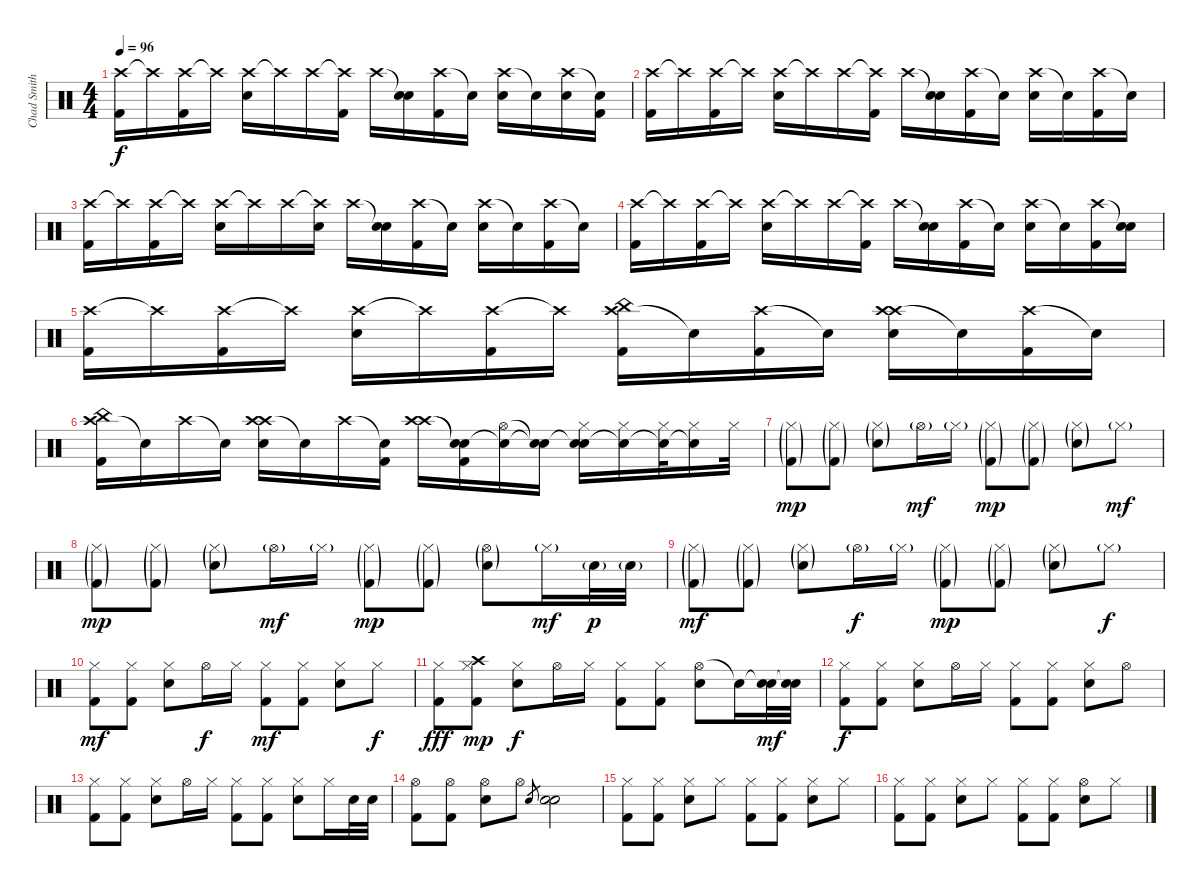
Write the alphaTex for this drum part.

\track ("Chad Smith" "Chad Smith") {mute instrument percussion}
\staff {score}
\articulation defaults
\ts (4 4)
\tempo 96
\clef neutral
\ks c
("Crash high (hit)" "Kick (hit) 2").16{dy f} "Crash high (hit)"{t}.16 ("Crash high (hit)" "Kick (hit) 2").16 "Crash high (hit)"{t}.16 ("Crash high (hit)" "Snare (hit) 2").16 "Crash high (hit)"{t}.16 "Crash high (hit)".16 ("Crash high (hit)"{t} "Kick (hit) 2").16 "Crash high (hit)".16 ("Snare (hit)"{t} "Snare (hit) 2").16 ("Crash high (hit)" "Kick (hit) 2").16 "Snare (hit)"{t}.16 ("Crash high (hit)" "Snare (hit) 2").16 "Snare (hit)"{t}.16 ("Crash high (hit)" "Snare (hit) 2").16 ("Snare (hit)"{t} "Kick (hit) 2").16 |
("Crash high (hit)" "Kick (hit) 2").16 "Crash high (hit)"{t}.16 ("Crash high (hit)" "Kick (hit) 2").16 "Crash high (hit)"{t}.16 ("Crash high (hit)" "Snare (hit) 2").16 "Crash high (hit)"{t}.16 "Crash high (hit)".16 ("Crash high (hit)"{t} "Kick (hit) 2").16 "Crash high (hit)".16 ("Snare (hit)"{t} "Snare (hit) 2").16 ("Crash high (hit)" "Kick (hit) 2").16 "Snare (hit)"{t}.16 ("Crash high (hit)" "Snare (hit) 2").16 "Snare (hit)"{t}.16 ("Crash high (hit)" "Kick (hit) 2").16 "Snare (hit)"{t}.16 |
("Crash high (hit)" "Kick (hit) 2").16 "Crash high (hit)"{t}.16 ("Crash high (hit)" "Kick (hit) 2").16 "Crash high (hit)"{t}.16 ("Crash high (hit)" "Snare (hit) 2").16 "Crash high (hit)"{t}.16 "Crash high (hit)".16 ("Crash high (hit)"{t} "Snare (hit) 2").16 "Crash high (hit)".16 ("Snare (hit)"{t} "Snare (hit) 2").16 ("Crash high (hit)" "Kick (hit) 2").16 "Snare (hit)"{t}.16 ("Crash high (hit)" "Snare (hit) 2").16 "Snare (hit)"{t}.16 ("Crash high (hit)" "Kick (hit) 2").16 "Snare (hit)"{t}.16 |
("Crash high (hit)" "Kick (hit) 2").16 "Crash high (hit)"{t}.16 ("Crash high (hit)" "Kick (hit) 2").16 "Crash high (hit)"{t}.16 ("Crash high (hit)" "Snare (hit) 2").16 "Crash high (hit)"{t}.16 "Crash high (hit)".16 ("Crash high (hit)"{t} "Kick (hit) 2").16 "Crash high (hit)".16 ("Snare (hit)"{t} "Snare (hit) 2").16 ("Crash high (hit)" "Kick (hit) 2").16 "Snare (hit)"{t}.16 ("Crash high (hit)" "Snare (hit) 2").16 "Snare (hit)"{t}.16 ("Crash high (hit)" "Kick (hit) 2").16 ("Snare (hit)"{t} "Snare (hit) 2").16 |
("Crash high (hit)" "Kick (hit) 2").16 "Crash high (hit)"{t}.16 ("Crash high (hit)" "Kick (hit) 2").16 "Crash high (hit)"{t}.16 ("Crash high (hit)" "Snare (hit) 2").16 "Crash high (hit)"{t}.16 ("Crash high (hit)" "Kick (hit) 2").16 "Crash high (hit)"{t}.16 ("Crash high (hit)" "China (hit)" "Kick (hit) 2").16 "Snare (hit)"{t}.16 ("Crash high (hit)" "Kick (hit) 2").16 "Snare (hit)"{t}.16 ("Crash high (hit)" "Crash high (hit)" "Snare (hit) 2").16 "Snare (hit)"{t}.16 ("Crash high (hit)" "Kick (hit) 2").16 "Snare (hit)"{t}.16 |
("Crash high (hit)" "China (hit)" "Kick (hit) 2").16 "Snare (hit)"{t}.16 "Crash high (hit)".16 "Snare (hit)"{t}.16 ("Crash high (hit)" "Crash high (hit)" "Snare (hit) 2").16 "Snare (hit)"{t}.16 "Crash high (hit)".16 ("Snare (hit)"{t} "Kick (hit) 2").16 ("Crash high (hit)" "Crash high (hit)").16 ("Snare (hit)"{t} "Snare (hit)"{t} "Kick (hit) 2").16 ("Hi-Hat (open)" "Snare (hit)"{t}).16 ("Snare (hit)"{t} "Snare (hit)"{t}).16 ("Hi-Hat (closed)" "Snare (hit)"{t} "Snare (hit) 2").16 ("Hi-Hat (closed)" "Snare (hit)"{t}).16 ("Hi-Hat (closed)" "Snare (hit)"{t}).32 ("Hi-Hat (closed)" "Snare (hit)"{t}).16 "Hi-Hat (closed)".32 |
("Hi-Hat (closed)"{g} "Kick (hit) 2"{g}).8{dy mp} ("Hi-Hat (closed)"{g} "Kick (hit) 2"{g}).8 ("Hi-Hat (closed)"{g} "Snare (hit) 2"{g}).8 "Hi-Hat (open)"{g}.16{dy mf} "Hi-Hat (closed)"{g}.16 ("Hi-Hat (closed)"{g} "Kick (hit) 2"{g}).8{dy mp} ("Hi-Hat (closed)"{g} "Kick (hit) 2"{g}).8 ("Hi-Hat (closed)"{g} "Snare (hit) 2"{g}).8 "Hi-Hat (closed)"{g}.8{dy mf} |
("Hi-Hat (closed)"{g} "Kick (hit) 2"{g}).8{dy mp} ("Hi-Hat (closed)"{g} "Kick (hit) 2"{g}).8 ("Hi-Hat (closed)"{g} "Snare (hit) 2"{g}).8 "Hi-Hat (open)"{g}.16{dy mf} "Hi-Hat (closed)"{g}.16 ("Hi-Hat (closed)"{g} "Kick (hit) 2"{g}).8{dy mp} ("Hi-Hat (closed)"{g} "Kick (hit) 2"{g}).8 ("Hi-Hat (open)"{g} "Snare (hit) 2"{g}).8 "Hi-Hat (closed)"{g}.16{dy mf} "Snare (hit) 2"{g}.32{dy p} "Snare (hit) 2"{g}.32 |
("Hi-Hat (closed)"{g} "Kick (hit) 2"{g}).8{dy mf} ("Hi-Hat (closed)"{g} "Kick (hit) 2"{g}).8 ("Hi-Hat (closed)"{g} "Snare (hit) 2"{g}).8 "Hi-Hat (open)"{g}.16{dy f} "Hi-Hat (closed)"{g}.16 ("Hi-Hat (closed)"{g} "Kick (hit) 2"{g}).8{dy mp} ("Hi-Hat (closed)"{g} "Kick (hit) 2"{g}).8 ("Hi-Hat (closed)"{g} "Snare (hit) 2"{g}).8 "Hi-Hat (closed)"{g}.8{dy f} |
("Hi-Hat (closed)" "Kick (hit) 2").8{dy mf} ("Hi-Hat (closed)" "Kick (hit) 2").8 ("Hi-Hat (closed)" "Snare (hit) 2").8 "Hi-Hat (open)".16{dy f} "Hi-Hat (closed)".16 ("Hi-Hat (closed)" "Kick (hit) 2").8{dy mf} ("Hi-Hat (closed)" "Kick (hit) 2").8 ("Hi-Hat (closed)" "Snare (hit) 2").8 "Hi-Hat (closed)".8{dy f} |
("Hi-Hat (closed)" "Kick (hit) 2").8{dy fff} ("Hi-Hat (closed)" "Crash high (hit)" "Kick (hit) 2").8{dy mp} ("Hi-Hat (closed)" "Snare (hit) 2").8{dy f} "Hi-Hat (open)".16 "Hi-Hat (closed)".16 ("Hi-Hat (closed)" "Kick (hit) 2").8 ("Hi-Hat (closed)" "Kick (hit) 2").8 ("Hi-Hat (open)" "Snare (hit) 2").8 "Snare (hit)"{t}.16 ("Snare (hit)"{t} "Snare (hit) 2").32{dy mf} ("Snare (hit)"{t} "Snare (hit) 2").32 |
("Hi-Hat (closed)" "Kick (hit) 2").8{dy f} ("Hi-Hat (closed)" "Kick (hit) 2").8 ("Hi-Hat (closed)" "Snare (hit) 2").8 "Hi-Hat (open)".16 "Hi-Hat (closed)".16 ("Hi-Hat (closed)" "Kick (hit) 2").8 ("Hi-Hat (closed)" "Kick (hit) 2").8 ("Hi-Hat (closed)" "Snare (hit) 2").8 "Hi-Hat (open)".8 |
("Hi-Hat (closed)" "Kick (hit) 2").8 ("Hi-Hat (closed)" "Kick (hit) 2").8 ("Hi-Hat (closed)" "Snare (hit) 2").8 "Hi-Hat (open)".16 "Hi-Hat (closed)".16 ("Hi-Hat (closed)" "Kick (hit) 2").8 ("Hi-Hat (closed)" "Kick (hit) 2").8 ("Hi-Hat (closed)" "Snare (hit) 2").8 "Hi-Hat (closed)".16 "Snare (hit) 2".32 "Snare (hit) 2".32 |
("Hi-Hat (open)" "Kick (hit) 2").8 ("Hi-Hat (open)" "Kick (hit) 2").8 ("Hi-Hat (open)" "Snare (hit) 2").8 "Hi-Hat (open)".8 "Snare (hit) 2".8{gr} ("Snare (hit) 2" "Snare (hit) 2").2 |
("Hi-Hat (closed)" "Kick (hit) 2").8 ("Hi-Hat (closed)" "Kick (hit) 2").8 ("Hi-Hat (closed)" "Snare (hit) 2").8 "Hi-Hat (closed)".8 ("Hi-Hat (closed)" "Kick (hit) 2").8 ("Hi-Hat (closed)" "Kick (hit) 2").8 ("Hi-Hat (closed)" "Snare (hit) 2").8 "Hi-Hat (closed)".8 |
("Hi-Hat (closed)" "Kick (hit) 2").8 ("Hi-Hat (closed)" "Kick (hit) 2").8 ("Hi-Hat (closed)" "Snare (hit) 2").8 "Hi-Hat (closed)".8 ("Hi-Hat (closed)" "Kick (hit) 2").8 ("Hi-Hat (closed)" "Kick (hit) 2").8 ("Hi-Hat (open)" "Snare (hit) 2").8 "Hi-Hat (closed)".8
